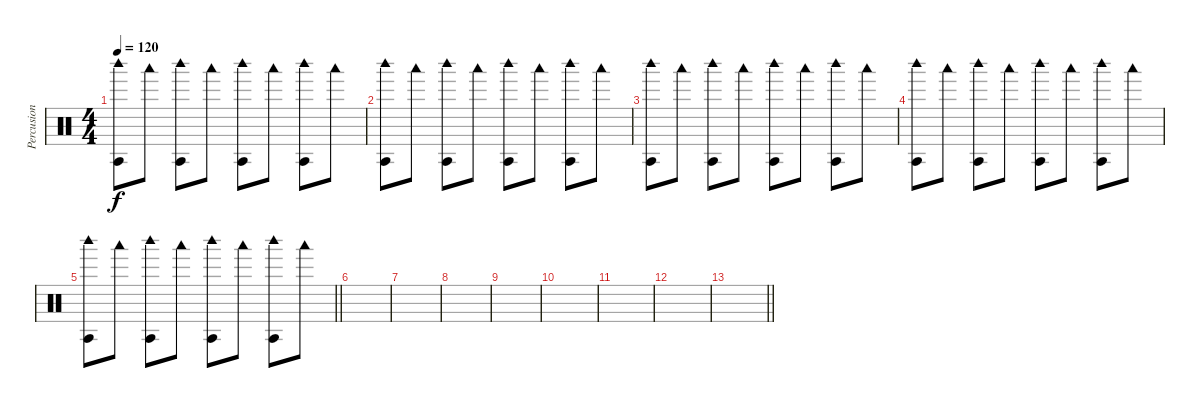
\track ("Percusion" "Percusion") {instrument percussion}
\staff
\articulation defaults
\ts (4 4)
\tempo 120
\clef neutral
\ks c
("Woodblock high (hit)" "Agogo tow (hit)").8{dy f} "Woodblock low (hit)".8 ("Woodblock high (hit)" "Agogo tow (hit)").8 "Woodblock low (hit)".8 ("Woodblock high (hit)" "Agogo tow (hit)").8 "Woodblock low (hit)".8 ("Woodblock high (hit)" "Agogo tow (hit)").8 "Woodblock low (hit)".8 |
("Woodblock high (hit)" "Agogo tow (hit)").8 "Woodblock low (hit)".8 ("Woodblock high (hit)" "Agogo tow (hit)").8 "Woodblock low (hit)".8 ("Woodblock high (hit)" "Agogo tow (hit)").8 "Woodblock low (hit)".8 ("Woodblock high (hit)" "Agogo tow (hit)").8 "Woodblock low (hit)".8 |
("Woodblock high (hit)" "Agogo tow (hit)").8 "Woodblock low (hit)".8 ("Woodblock high (hit)" "Agogo tow (hit)").8 "Woodblock low (hit)".8 ("Woodblock high (hit)" "Agogo tow (hit)").8 "Woodblock low (hit)".8 ("Woodblock high (hit)" "Agogo tow (hit)").8 "Woodblock low (hit)".8 |
("Woodblock high (hit)" "Agogo tow (hit)").8 "Woodblock low (hit)".8 ("Woodblock high (hit)" "Agogo tow (hit)").8 "Woodblock low (hit)".8 ("Woodblock high (hit)" "Agogo tow (hit)").8 "Woodblock low (hit)".8 ("Woodblock high (hit)" "Agogo tow (hit)").8 "Woodblock low (hit)".8 |
\barLineRight lightlight
("Woodblock high (hit)" "Agogo tow (hit)").8 "Woodblock low (hit)".8 ("Woodblock high (hit)" "Agogo tow (hit)").8 "Woodblock low (hit)".8 ("Woodblock high (hit)" "Agogo tow (hit)").8 "Woodblock low (hit)".8 ("Woodblock high (hit)" "Agogo tow (hit)").8 "Woodblock low (hit)".8 |
|
|
|
|
|
|
|
\barLineRight lightlight
